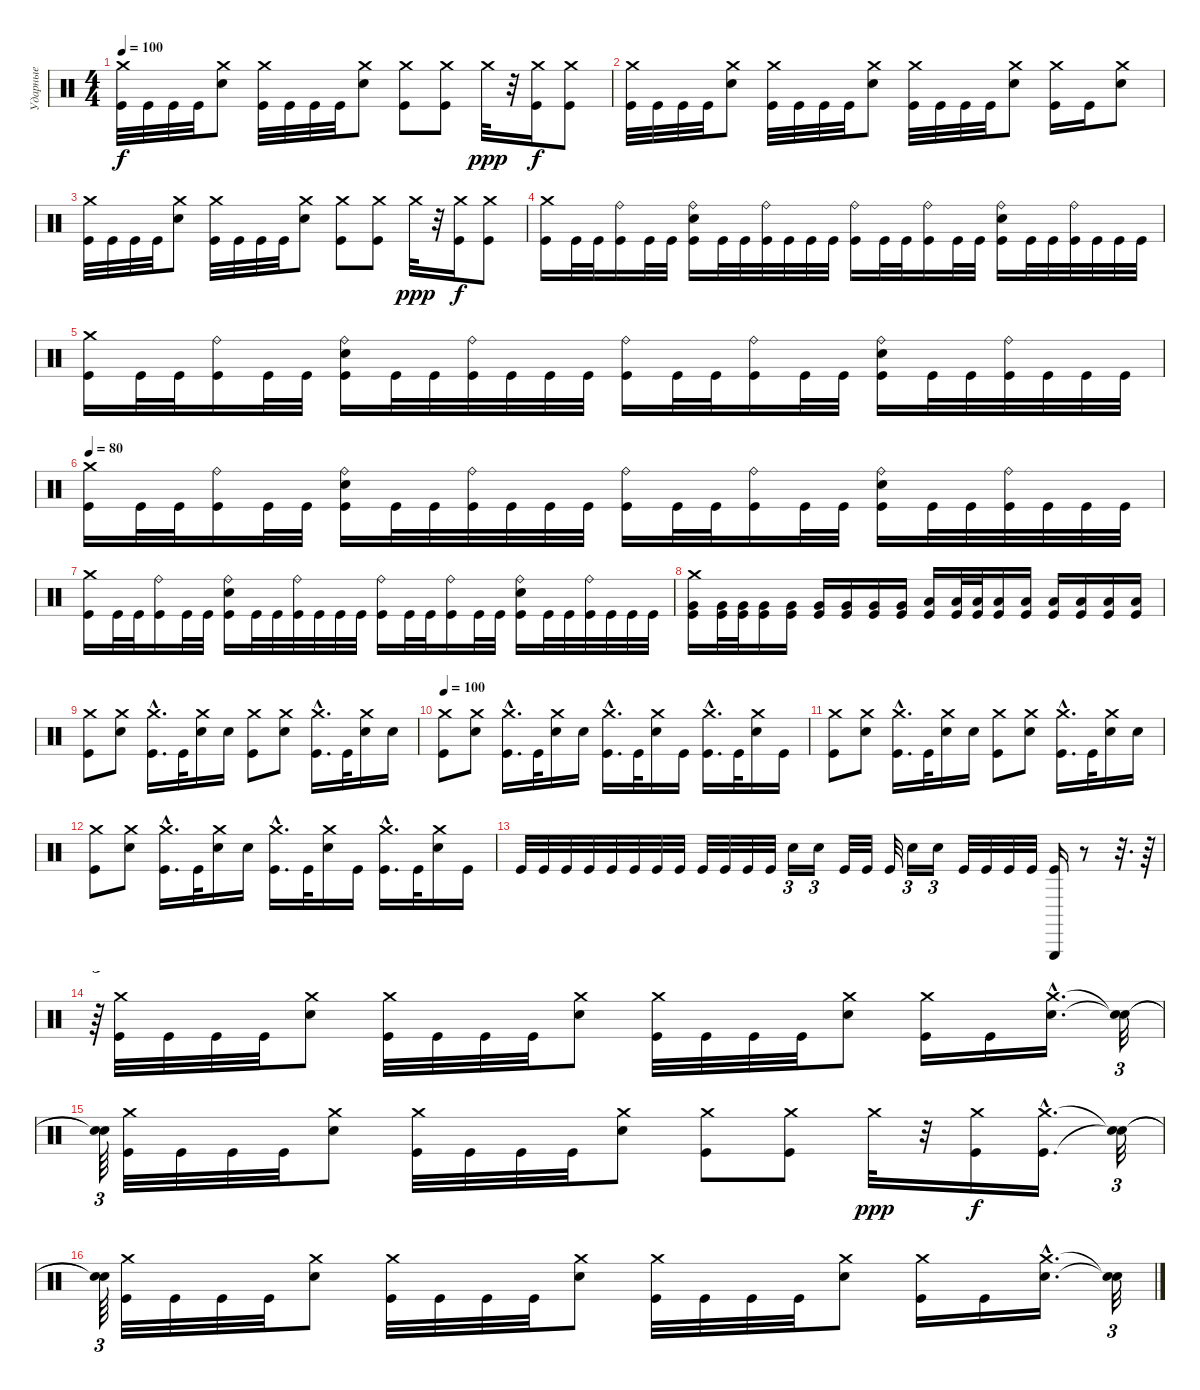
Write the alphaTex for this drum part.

\track ("Ударные" "Ударные") {instrument percussion}
\staff {score}
\articulation defaults
\ts (4 4)
\tempo 100
\clef neutral
\ks c
("Crash medium (hit)" "Kick (hit)").32{dy f} "Kick (hit)".32 "Kick (hit)".32 "Kick (hit)".32 ("Crash medium (hit)" "Snare (hit) 2").8 ("Crash medium (hit)" "Kick (hit)").32 "Kick (hit)".32 "Kick (hit)".32 "Kick (hit)".32 ("Crash medium (hit)" "Snare (hit) 2").8 ("Crash medium (hit)" "Kick (hit)").8 ("Crash medium (hit)" "Kick (hit)").8 "Crash medium (hit)".32{dy ppp} r.32 ("Crash medium (hit)" "Kick (hit)").16{dy f} ("Crash medium (hit)" "Kick (hit)").8 |
("Crash medium (hit)" "Kick (hit)").32 "Kick (hit)".32 "Kick (hit)".32 "Kick (hit)".32 ("Crash medium (hit)" "Snare (hit) 2").8 ("Crash medium (hit)" "Kick (hit)").32 "Kick (hit)".32 "Kick (hit)".32 "Kick (hit)".32 ("Crash medium (hit)" "Snare (hit) 2").8 ("Crash medium (hit)" "Kick (hit)").32 "Kick (hit)".32 "Kick (hit)".32 "Kick (hit)".32 ("Crash medium (hit)" "Snare (hit) 2").8 ("Crash medium (hit)" "Kick (hit)").16 "Kick (hit)".16 ("Crash medium (hit)" "Snare (hit) 2").8 |
("Crash medium (hit)" "Kick (hit)").32 "Kick (hit)".32 "Kick (hit)".32 "Kick (hit)".32 ("Crash medium (hit)" "Snare (hit) 2").8 ("Crash medium (hit)" "Kick (hit)").32 "Kick (hit)".32 "Kick (hit)".32 "Kick (hit)".32 ("Crash medium (hit)" "Snare (hit) 2").8 ("Crash medium (hit)" "Kick (hit)").8 ("Crash medium (hit)" "Kick (hit)").8 "Crash medium (hit)".32{dy ppp} r.32 ("Crash medium (hit)" "Kick (hit)").16{dy f} ("Crash medium (hit)" "Kick (hit)").8 |
("Crash medium (hit)" "Kick (hit)").16 "Kick (hit)".32 "Kick (hit)".32 ("Ride (bell)" "Kick (hit)").16 "Kick (hit)".32 "Kick (hit)".32 ("Ride (bell)" "Snare (hit) 2" "Kick (hit)").16 "Kick (hit)".32 "Kick (hit)".32 ("Ride (bell)" "Kick (hit)").32 "Kick (hit)".32 "Kick (hit)".32 "Kick (hit)".32 ("Ride (bell)" "Kick (hit)").16 "Kick (hit)".32 "Kick (hit)".32 ("Ride (bell)" "Kick (hit)").16 "Kick (hit)".32 "Kick (hit)".32 ("Ride (bell)" "Snare (hit) 2" "Kick (hit)").16 "Kick (hit)".32 "Kick (hit)".32 ("Ride (bell)" "Kick (hit)").32 "Kick (hit)".32 "Kick (hit)".32 "Kick (hit)".32 |
("Crash medium (hit)" "Kick (hit)").16 "Kick (hit)".32 "Kick (hit)".32 ("Ride (bell)" "Kick (hit)").16 "Kick (hit)".32 "Kick (hit)".32 ("Ride (bell)" "Snare (hit) 2" "Kick (hit)").16 "Kick (hit)".32 "Kick (hit)".32 ("Ride (bell)" "Kick (hit)").32 "Kick (hit)".32 "Kick (hit)".32 "Kick (hit)".32 ("Ride (bell)" "Kick (hit)").16 "Kick (hit)".32 "Kick (hit)".32 ("Ride (bell)" "Kick (hit)").16 "Kick (hit)".32 "Kick (hit)".32 ("Ride (bell)" "Snare (hit) 2" "Kick (hit)").16 "Kick (hit)".32 "Kick (hit)".32 ("Ride (bell)" "Kick (hit)").32 "Kick (hit)".32 "Kick (hit)".32 "Kick (hit)".32 |
\tempo 80
("Crash medium (hit)" "Kick (hit)").16 "Kick (hit)".32 "Kick (hit)".32 ("Ride (bell)" "Kick (hit)").16 "Kick (hit)".32 "Kick (hit)".32 ("Ride (bell)" "Snare (hit) 2" "Kick (hit)").16 "Kick (hit)".32 "Kick (hit)".32 ("Ride (bell)" "Kick (hit)").32 "Kick (hit)".32 "Kick (hit)".32 "Kick (hit)".32 ("Ride (bell)" "Kick (hit)").16 "Kick (hit)".32 "Kick (hit)".32 ("Ride (bell)" "Kick (hit)").16 "Kick (hit)".32 "Kick (hit)".32 ("Ride (bell)" "Snare (hit) 2" "Kick (hit)").16 "Kick (hit)".32 "Kick (hit)".32 ("Ride (bell)" "Kick (hit)").32 "Kick (hit)".32 "Kick (hit)".32 "Kick (hit)".32 |
("Crash medium (hit)" "Kick (hit)").16 "Kick (hit)".32 "Kick (hit)".32 ("Ride (bell)" "Kick (hit)").16 "Kick (hit)".32 "Kick (hit)".32 ("Ride (bell)" "Snare (hit) 2" "Kick (hit)").16 "Kick (hit)".32 "Kick (hit)".32 ("Ride (bell)" "Kick (hit)").32 "Kick (hit)".32 "Kick (hit)".32 "Kick (hit)".32 ("Ride (bell)" "Kick (hit)").16 "Kick (hit)".32 "Kick (hit)".32 ("Ride (bell)" "Kick (hit)").16 "Kick (hit)".32 "Kick (hit)".32 ("Ride (bell)" "Snare (hit) 2" "Kick (hit)").16 "Kick (hit)".32 "Kick (hit)".32 ("Ride (bell)" "Kick (hit)").32 "Kick (hit)".32 "Kick (hit)".32 "Kick (hit)".32 |
("Crash medium (hit)" "Very Low Tom (hit)" "Kick (hit)").16 ("Very Low Tom (hit)" "Kick (hit)").32 ("Very Low Tom (hit)" "Kick (hit)").32 ("Very Low Tom (hit)" "Kick (hit)").16 ("Very Low Tom (hit)" "Kick (hit)").16 ("Very Low Tom (hit)" "Kick (hit)").16 ("Very Low Tom (hit)" "Kick (hit)").16 ("Very Low Tom (hit)" "Kick (hit)").16 ("Very Low Tom (hit)" "Kick (hit)").16 ("Low Floor Tom (hit)" "Kick (hit)").16 ("Low Floor Tom (hit)" "Kick (hit)").32 ("Low Floor Tom (hit)" "Kick (hit)").32 ("Low Floor Tom (hit)" "Kick (hit)").16 ("Low Floor Tom (hit)" "Kick (hit)").16 ("Low Floor Tom (hit)" "Kick (hit)").16 ("Low Floor Tom (hit)" "Kick (hit)").16 ("Low Floor Tom (hit)" "Kick (hit)").16 ("Low Floor Tom (hit)" "Kick (hit)").16 |
("Crash medium (hit)" "Kick (hit)").8 ("Crash medium (hit)" "Snare (hit) 2").8 ("Crash medium (hit)"{hac} "Kick (hit)"{hac}).16{d} "Kick (hit)".32 ("Crash medium (hit)" "Snare (hit) 2").16 "Snare (hit) 2".16 ("Crash medium (hit)" "Kick (hit)").8 ("Crash medium (hit)" "Snare (hit) 2").8 ("Crash medium (hit)"{hac} "Kick (hit)"{hac}).16{d} "Kick (hit)".32 ("Crash medium (hit)" "Snare (hit) 2").16 "Snare (hit) 2".16 |
\tempo 100
("Crash medium (hit)" "Kick (hit)").8 ("Crash medium (hit)" "Snare (hit) 2").8 ("Crash medium (hit)"{hac} "Kick (hit)"{hac}).16{d} "Kick (hit)".32 ("Crash medium (hit)" "Snare (hit) 2").16 "Snare (hit) 2".16 ("Crash medium (hit)"{hac} "Kick (hit)"{hac}).16{d} "Kick (hit)".32 ("Crash medium (hit)" "Snare (hit) 2").16 "Kick (hit)".16 ("Crash medium (hit)"{hac} "Kick (hit)"{hac}).16{d} "Kick (hit)".32 ("Crash medium (hit)" "Snare (hit) 2").16 "Kick (hit)".16 |
("Crash medium (hit)" "Kick (hit)").8 ("Crash medium (hit)" "Snare (hit) 2").8 ("Crash medium (hit)"{hac} "Kick (hit)"{hac}).16{d} "Kick (hit)".32 ("Crash medium (hit)" "Snare (hit) 2").16 "Snare (hit) 2".16 ("Crash medium (hit)" "Kick (hit)").8 ("Crash medium (hit)" "Snare (hit) 2").8 ("Crash medium (hit)"{hac} "Kick (hit)"{hac}).16{d} "Kick (hit)".32 ("Crash medium (hit)" "Snare (hit) 2").16 "Snare (hit) 2".16 |
("Crash medium (hit)" "Kick (hit)").8 ("Crash medium (hit)" "Snare (hit) 2").8 ("Crash medium (hit)"{hac} "Kick (hit)"{hac}).16{d} "Kick (hit)".32 ("Crash medium (hit)" "Snare (hit) 2").16 "Snare (hit) 2".16 ("Crash medium (hit)"{hac} "Kick (hit)"{hac}).16{d} "Kick (hit)".32 ("Crash medium (hit)" "Snare (hit) 2").16 "Kick (hit)".16 ("Crash medium (hit)"{hac} "Kick (hit)"{hac}).16{d} "Kick (hit)".32 ("Crash medium (hit)" "Snare (hit) 2").16 "Kick (hit)".16 |
"Kick (hit)".32 "Kick (hit)".32 "Kick (hit)".32 "Kick (hit)".32 "Kick (hit)".32 "Kick (hit)".32 "Kick (hit)".32 "Kick (hit)".32 "Kick (hit)".32 "Kick (hit)".32 "Kick (hit)".32 "Kick (hit)".32 "Snare (hit) 2".16{tu (3 2)} "Snare (hit) 2".16{tu (3 2)} "Kick (hit)".32 "Kick (hit)".32 "Kick (hit)".32 "Snare (hit) 2".16{tu (3 2)} "Snare (hit) 2".16{tu (3 2)} "Kick (hit)".32 "Kick (hit)".32 "Kick (hit)".32 "Kick (hit)".32 ("Triangle (hit)" "Kick (hit)").16 r.8 r.32{d} r.64 |
r.64{tu (3 2)} ("Crash medium (hit)" "Kick (hit)").32 "Kick (hit)".32 "Kick (hit)".32 "Kick (hit)".32 ("Crash medium (hit)" "Snare (hit) 2").8 ("Crash medium (hit)" "Kick (hit)").32 "Kick (hit)".32 "Kick (hit)".32 "Kick (hit)".32 ("Crash medium (hit)" "Snare (hit) 2").8 ("Crash medium (hit)" "Kick (hit)").32 "Kick (hit)".32 "Kick (hit)".32 "Kick (hit)".32 ("Crash medium (hit)" "Snare (hit) 2").8 ("Crash medium (hit)" "Kick (hit)").16 "Kick (hit)".16 ("Crash medium (hit)"{hac} "Snare (hit) 2"{hac}).16{d} ("Snare (hit)"{t} "Snare (hit)"{t}).32{tu (3 2)} |
("Snare (hit)"{t} "Snare (hit)"{t}).64{tu (3 2)} ("Crash medium (hit)" "Kick (hit)").32 "Kick (hit)".32 "Kick (hit)".32 "Kick (hit)".32 ("Crash medium (hit)" "Snare (hit) 2").8 ("Crash medium (hit)" "Kick (hit)").32 "Kick (hit)".32 "Kick (hit)".32 "Kick (hit)".32 ("Crash medium (hit)" "Snare (hit) 2").8 ("Crash medium (hit)" "Kick (hit)").8 ("Crash medium (hit)" "Kick (hit)").8 "Crash medium (hit)".32{dy ppp} r.32 ("Crash medium (hit)" "Kick (hit)").16{dy f} ("Crash medium (hit)"{hac} "Kick (hit)"{hac}).16{d} ("Snare (hit)"{t} "Snare (hit)"{t}).32{tu (3 2)} |
("Snare (hit)"{t} "Snare (hit)"{t}).64{tu (3 2)} ("Crash medium (hit)" "Kick (hit)").32 "Kick (hit)".32 "Kick (hit)".32 "Kick (hit)".32 ("Crash medium (hit)" "Snare (hit) 2").8 ("Crash medium (hit)" "Kick (hit)").32 "Kick (hit)".32 "Kick (hit)".32 "Kick (hit)".32 ("Crash medium (hit)" "Snare (hit) 2").8 ("Crash medium (hit)" "Kick (hit)").32 "Kick (hit)".32 "Kick (hit)".32 "Kick (hit)".32 ("Crash medium (hit)" "Snare (hit) 2").8 ("Crash medium (hit)" "Kick (hit)").16 "Kick (hit)".16 ("Crash medium (hit)"{hac} "Snare (hit) 2"{hac}).16{d} ("Snare (hit)"{t} "Snare (hit)"{t}).32{tu (3 2)}
